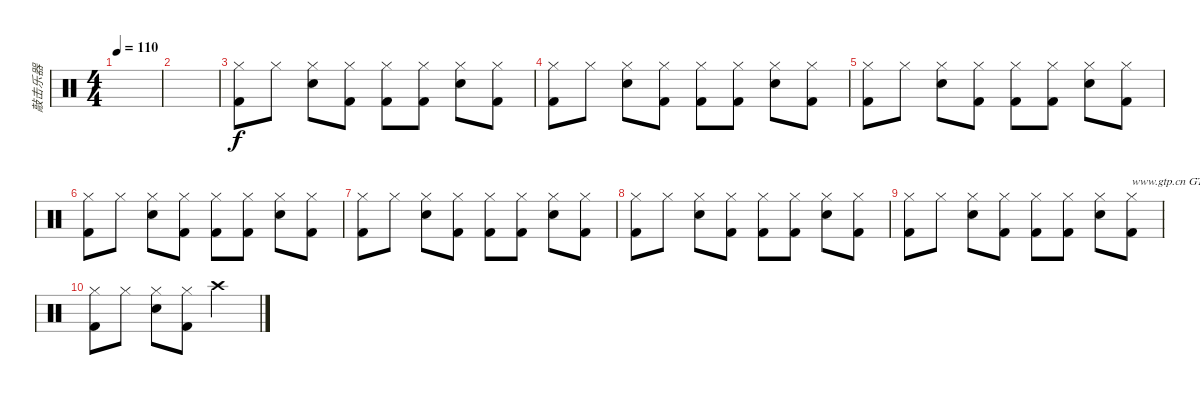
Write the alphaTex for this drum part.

\track ("敲击乐器" "敲击乐器") {instrument percussion}
\staff {score}
\articulation defaults
\ts (4 4)
\tempo 110
\clef neutral
\ks c
|
|
("Hi-Hat (closed)" "Kick (hit) 2").8 "Hi-Hat (closed)".8 ("Electric Snare (hit)" "Hi-Hat (closed)").8 ("Hi-Hat (closed)" "Kick (hit) 2").8 ("Kick (hit) 2" "Hi-Hat (closed)").8 ("Hi-Hat (closed)" "Kick (hit) 2").8 ("Electric Snare (hit)" "Hi-Hat (closed)").8 ("Hi-Hat (closed)" "Kick (hit) 2").8 |
("Hi-Hat (closed)" "Kick (hit) 2").8 "Hi-Hat (closed)".8 ("Electric Snare (hit)" "Hi-Hat (closed)").8 ("Hi-Hat (closed)" "Kick (hit) 2").8 ("Kick (hit) 2" "Hi-Hat (closed)").8 ("Kick (hit) 2" "Hi-Hat (closed)").8 ("Electric Snare (hit)" "Hi-Hat (closed)").8 ("Hi-Hat (closed)" "Kick (hit) 2").8 |
("Kick (hit) 2" "Hi-Hat (closed)").8 "Hi-Hat (closed)".8 ("Hi-Hat (closed)" "Electric Snare (hit)").8 ("Kick (hit) 2" "Hi-Hat (closed)").8 ("Kick (hit) 2" "Hi-Hat (closed)").8 ("Kick (hit) 2" "Hi-Hat (closed)").8 ("Hi-Hat (closed)" "Electric Snare (hit)").8 ("Kick (hit) 2" "Hi-Hat (closed)").8 |
("Hi-Hat (closed)" "Kick (hit) 2").8 "Hi-Hat (closed)".8 ("Electric Snare (hit)" "Hi-Hat (closed)").8 ("Hi-Hat (closed)" "Kick (hit) 2").8 ("Kick (hit) 2" "Hi-Hat (closed)").8 ("Kick (hit) 2" "Hi-Hat (closed)").8 ("Hi-Hat (closed)" "Electric Snare (hit)").8 ("Kick (hit) 2" "Hi-Hat (closed)").8 |
("Hi-Hat (closed)" "Kick (hit) 2").8 "Hi-Hat (closed)".8 ("Hi-Hat (closed)" "Electric Snare (hit)").8 ("Kick (hit) 2" "Hi-Hat (closed)").8 ("Hi-Hat (closed)" "Kick (hit) 2").8 ("Hi-Hat (closed)" "Kick (hit) 2").8 ("Hi-Hat (closed)" "Electric Snare (hit)").8 ("Kick (hit) 2" "Hi-Hat (closed)").8 |
("Hi-Hat (closed)" "Kick (hit) 2").8 "Hi-Hat (closed)".8 ("Electric Snare (hit)" "Hi-Hat (closed)").8 ("Hi-Hat (closed)" "Kick (hit) 2").8 ("Kick (hit) 2" "Hi-Hat (closed)").8 ("Hi-Hat (closed)" "Kick (hit) 2").8 ("Electric Snare (hit)" "Hi-Hat (closed)").8 ("Hi-Hat (closed)" "Kick (hit) 2").8 |
("Hi-Hat (closed)" "Kick (hit) 2").8 "Hi-Hat (closed)".8 ("Hi-Hat (closed)" "Electric Snare (hit)").8 ("Kick (hit) 2" "Hi-Hat (closed)").8 ("Hi-Hat (closed)" "Kick (hit) 2").8 ("Kick (hit) 2" "Hi-Hat (closed)").8 ("Hi-Hat (closed)" "Electric Snare (hit)").8 ("Kick (hit) 2" "Hi-Hat (closed)").8{txt "www.gtp.cn GTP中文娱乐网为您提供优秀的谱子"} |
("Kick (hit) 2" "Hi-Hat (closed)").8 "Hi-Hat (closed)".8 ("Hi-Hat (closed)" "Electric Snare (hit)").8 ("Kick (hit) 2" "Hi-Hat (closed)").8 "Crash high (hit)".2
